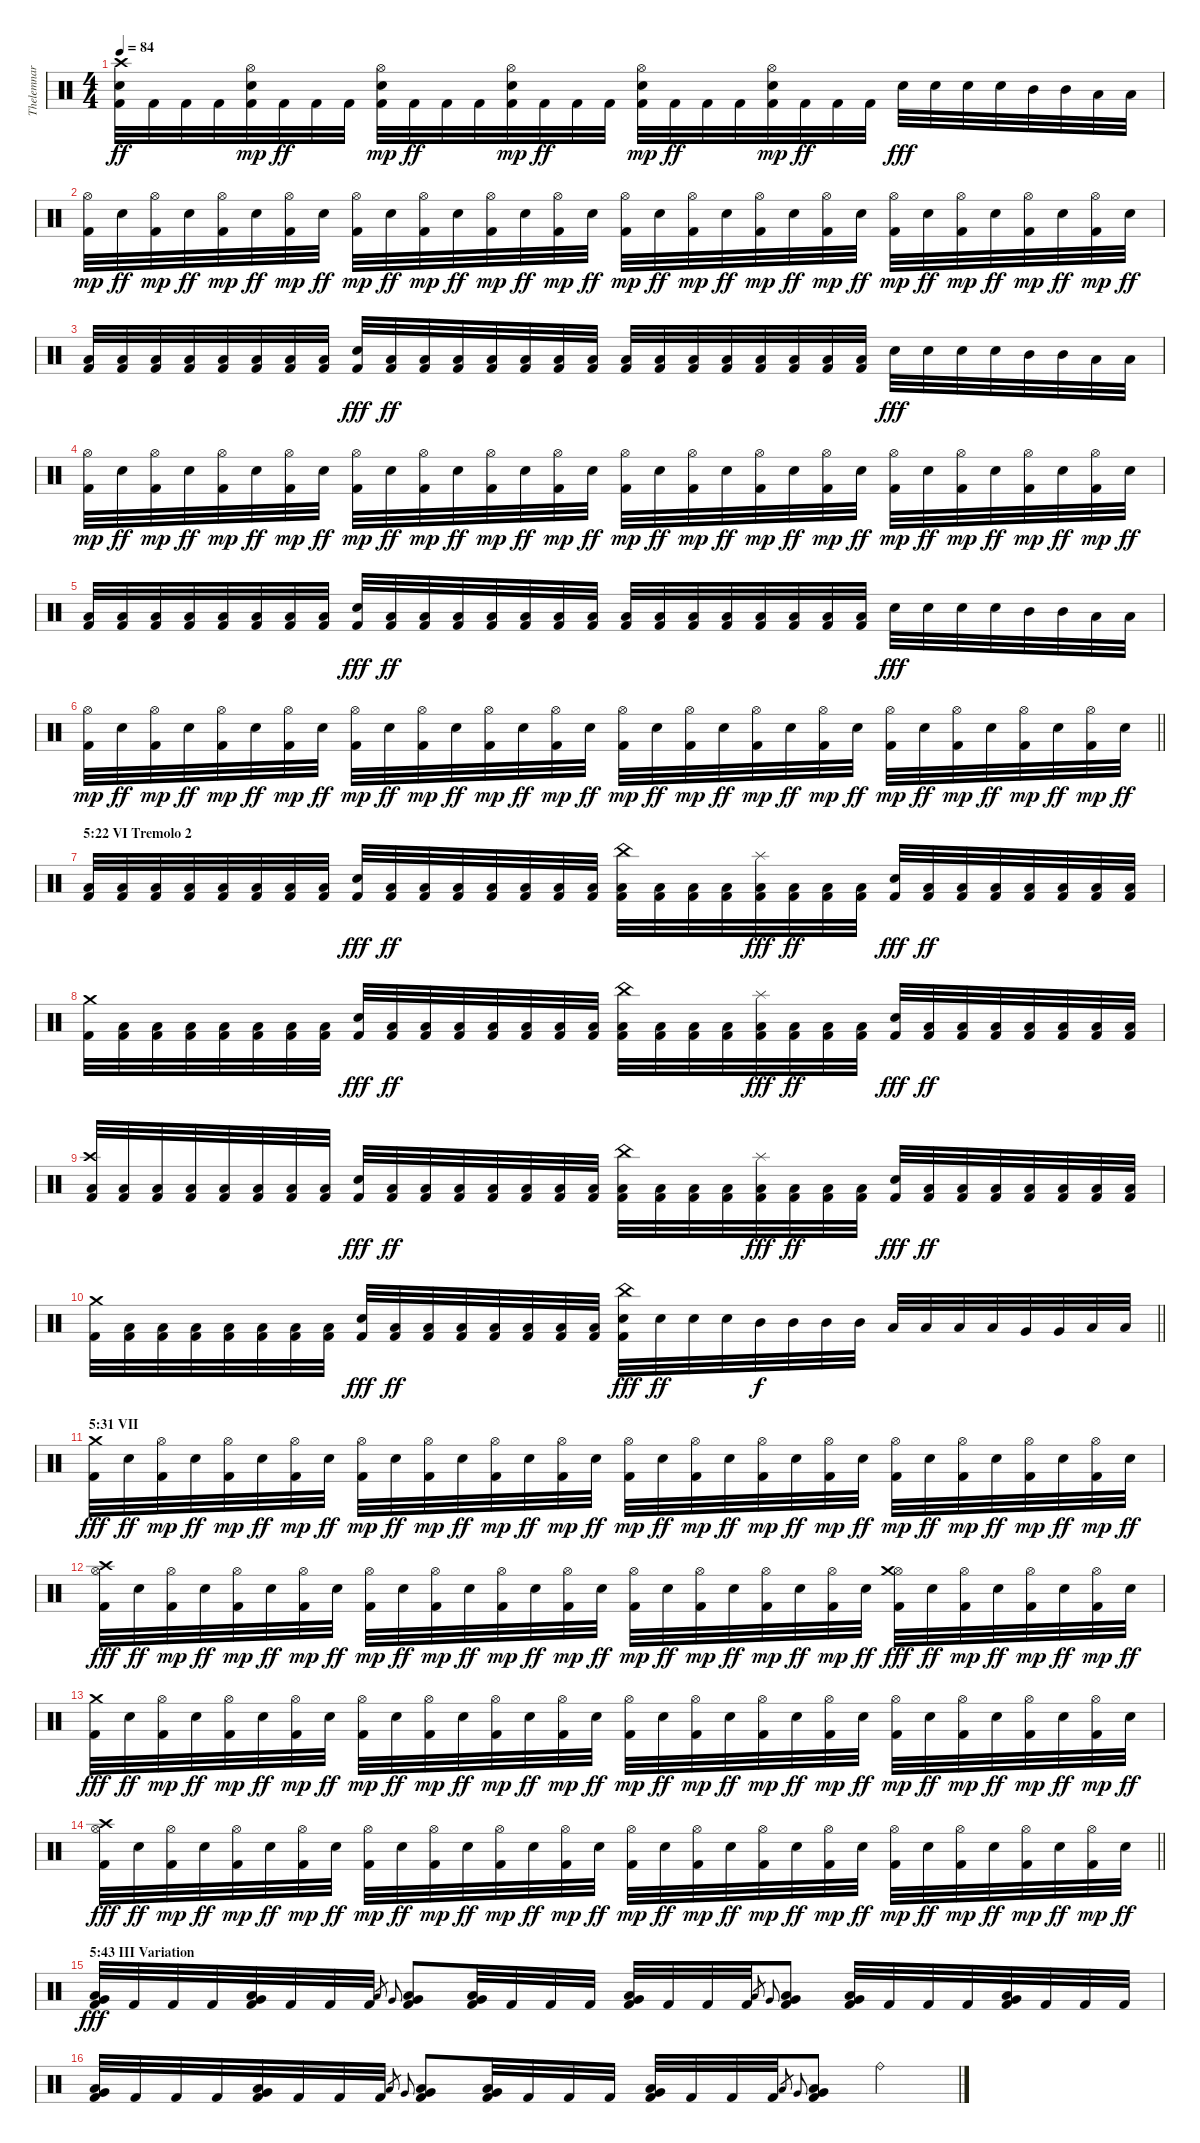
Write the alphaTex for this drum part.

\track ("Thelemnar (Drums)" "Thelemnar ") {instrument percussion}
\staff {score}
\articulation defaults
\ts (4 4)
\tempo 84
\clef neutral
\ks c
("Kick (hit) 2" "Electric Snare (hit)" "Crash high (hit)").32{dy ff} "Kick (hit) 2".32 "Kick (hit) 2".32 "Kick (hit) 2".32 ("Kick (hit) 2" "Electric Snare (hit)" "Hi-Hat (open)").32{dy mp} "Kick (hit) 2".32{dy ff} "Kick (hit) 2".32 "Kick (hit) 2".32 ("Kick (hit) 2" "Electric Snare (hit)" "Hi-Hat (open)").32{dy mp} "Kick (hit) 2".32{dy ff} "Kick (hit) 2".32 "Kick (hit) 2".32 ("Kick (hit) 2" "Electric Snare (hit)" "Hi-Hat (open)").32{dy mp} "Kick (hit) 2".32{dy ff} "Kick (hit) 2".32 "Kick (hit) 2".32 ("Kick (hit) 2" "Electric Snare (hit)" "Hi-Hat (open)").32{dy mp} "Kick (hit) 2".32{dy ff} "Kick (hit) 2".32 "Kick (hit) 2".32 ("Kick (hit) 2" "Electric Snare (hit)" "Hi-Hat (open)").32{dy mp} "Kick (hit) 2".32{dy ff} "Kick (hit) 2".32 "Kick (hit) 2".32 "Electric Snare (hit)".32{dy fff} "Electric Snare (hit)".32 "Electric Snare (hit)".32 "Electric Snare (hit)".32 "Mid Tom (hit)".32 "Mid Tom (hit)".32 "Low Tom (hit)".32 "Low Tom (hit)".32 |
("Kick (hit) 2" "Hi-Hat (open)").32{dy mp} "Electric Snare (hit)".32{dy ff} ("Kick (hit) 2" "Hi-Hat (open)").32{dy mp} "Electric Snare (hit)".32{dy ff} ("Kick (hit) 2" "Hi-Hat (open)").32{dy mp} "Electric Snare (hit)".32{dy ff} ("Kick (hit) 2" "Hi-Hat (open)").32{dy mp} "Electric Snare (hit)".32{dy ff} ("Kick (hit) 2" "Hi-Hat (open)").32{dy mp} "Electric Snare (hit)".32{dy ff} ("Kick (hit) 2" "Hi-Hat (open)").32{dy mp} "Electric Snare (hit)".32{dy ff} ("Kick (hit) 2" "Hi-Hat (open)").32{dy mp} "Electric Snare (hit)".32{dy ff} ("Kick (hit) 2" "Hi-Hat (open)").32{dy mp} "Electric Snare (hit)".32{dy ff} ("Kick (hit) 2" "Hi-Hat (open)").32{dy mp} "Electric Snare (hit)".32{dy ff} ("Kick (hit) 2" "Hi-Hat (open)").32{dy mp} "Electric Snare (hit)".32{dy ff} ("Kick (hit) 2" "Hi-Hat (open)").32{dy mp} "Electric Snare (hit)".32{dy ff} ("Kick (hit) 2" "Hi-Hat (open)").32{dy mp} "Electric Snare (hit)".32{dy ff} ("Kick (hit) 2" "Hi-Hat (open)").32{dy mp} "Electric Snare (hit)".32{dy ff} ("Kick (hit) 2" "Hi-Hat (open)").32{dy mp} "Electric Snare (hit)".32{dy ff} ("Kick (hit) 2" "Hi-Hat (open)").32{dy mp} "Electric Snare (hit)".32{dy ff} ("Kick (hit) 2" "Hi-Hat (open)").32{dy mp} "Electric Snare (hit)".32{dy ff} |
("Kick (hit) 2" "Low Floor Tom (hit)").32 ("Kick (hit) 2" "Low Floor Tom (hit)").32 ("Kick (hit) 2" "Low Floor Tom (hit)").32 ("Kick (hit) 2" "Low Floor Tom (hit)").32 ("Kick (hit) 2" "Low Floor Tom (hit)").32 ("Kick (hit) 2" "Low Floor Tom (hit)").32 ("Kick (hit) 2" "Low Floor Tom (hit)").32 ("Kick (hit) 2" "Low Floor Tom (hit)").32 ("Kick (hit) 2" "Electric Snare (hit)").32{dy fff} ("Kick (hit) 2" "Low Floor Tom (hit)").32{dy ff} ("Kick (hit) 2" "Low Floor Tom (hit)").32 ("Kick (hit) 2" "Low Floor Tom (hit)").32 ("Kick (hit) 2" "Low Floor Tom (hit)").32 ("Kick (hit) 2" "Low Floor Tom (hit)").32 ("Kick (hit) 2" "Low Floor Tom (hit)").32 ("Kick (hit) 2" "Low Floor Tom (hit)").32 ("Kick (hit) 2" "Low Floor Tom (hit)").32 ("Kick (hit) 2" "Low Floor Tom (hit)").32 ("Kick (hit) 2" "Low Floor Tom (hit)").32 ("Kick (hit) 2" "Low Floor Tom (hit)").32 ("Kick (hit) 2" "Low Floor Tom (hit)").32 ("Kick (hit) 2" "Low Floor Tom (hit)").32 ("Kick (hit) 2" "Low Floor Tom (hit)").32 ("Kick (hit) 2" "Low Floor Tom (hit)").32 "Electric Snare (hit)".32{dy fff} "Electric Snare (hit)".32 "Electric Snare (hit)".32 "Electric Snare (hit)".32 "Mid Tom (hit)".32 "Mid Tom (hit)".32 "Low Tom (hit)".32 "Low Tom (hit)".32 |
("Kick (hit) 2" "Hi-Hat (open)").32{dy mp} "Electric Snare (hit)".32{dy ff} ("Kick (hit) 2" "Hi-Hat (open)").32{dy mp} "Electric Snare (hit)".32{dy ff} ("Kick (hit) 2" "Hi-Hat (open)").32{dy mp} "Electric Snare (hit)".32{dy ff} ("Kick (hit) 2" "Hi-Hat (open)").32{dy mp} "Electric Snare (hit)".32{dy ff} ("Kick (hit) 2" "Hi-Hat (open)").32{dy mp} "Electric Snare (hit)".32{dy ff} ("Kick (hit) 2" "Hi-Hat (open)").32{dy mp} "Electric Snare (hit)".32{dy ff} ("Kick (hit) 2" "Hi-Hat (open)").32{dy mp} "Electric Snare (hit)".32{dy ff} ("Kick (hit) 2" "Hi-Hat (open)").32{dy mp} "Electric Snare (hit)".32{dy ff} ("Kick (hit) 2" "Hi-Hat (open)").32{dy mp} "Electric Snare (hit)".32{dy ff} ("Kick (hit) 2" "Hi-Hat (open)").32{dy mp} "Electric Snare (hit)".32{dy ff} ("Kick (hit) 2" "Hi-Hat (open)").32{dy mp} "Electric Snare (hit)".32{dy ff} ("Kick (hit) 2" "Hi-Hat (open)").32{dy mp} "Electric Snare (hit)".32{dy ff} ("Kick (hit) 2" "Hi-Hat (open)").32{dy mp} "Electric Snare (hit)".32{dy ff} ("Kick (hit) 2" "Hi-Hat (open)").32{dy mp} "Electric Snare (hit)".32{dy ff} ("Kick (hit) 2" "Hi-Hat (open)").32{dy mp} "Electric Snare (hit)".32{dy ff} ("Kick (hit) 2" "Hi-Hat (open)").32{dy mp} "Electric Snare (hit)".32{dy ff} |
("Kick (hit) 2" "Low Floor Tom (hit)").32 ("Kick (hit) 2" "Low Floor Tom (hit)").32 ("Kick (hit) 2" "Low Floor Tom (hit)").32 ("Kick (hit) 2" "Low Floor Tom (hit)").32 ("Kick (hit) 2" "Low Floor Tom (hit)").32 ("Kick (hit) 2" "Low Floor Tom (hit)").32 ("Kick (hit) 2" "Low Floor Tom (hit)").32 ("Kick (hit) 2" "Low Floor Tom (hit)").32 ("Kick (hit) 2" "Electric Snare (hit)").32{dy fff} ("Kick (hit) 2" "Low Floor Tom (hit)").32{dy ff} ("Kick (hit) 2" "Low Floor Tom (hit)").32 ("Kick (hit) 2" "Low Floor Tom (hit)").32 ("Kick (hit) 2" "Low Floor Tom (hit)").32 ("Kick (hit) 2" "Low Floor Tom (hit)").32 ("Kick (hit) 2" "Low Floor Tom (hit)").32 ("Kick (hit) 2" "Low Floor Tom (hit)").32 ("Kick (hit) 2" "Low Floor Tom (hit)").32 ("Kick (hit) 2" "Low Floor Tom (hit)").32 ("Kick (hit) 2" "Low Floor Tom (hit)").32 ("Kick (hit) 2" "Low Floor Tom (hit)").32 ("Kick (hit) 2" "Low Floor Tom (hit)").32 ("Kick (hit) 2" "Low Floor Tom (hit)").32 ("Kick (hit) 2" "Low Floor Tom (hit)").32 ("Kick (hit) 2" "Low Floor Tom (hit)").32 "Electric Snare (hit)".32{dy fff} "Electric Snare (hit)".32 "Electric Snare (hit)".32 "Electric Snare (hit)".32 "Mid Tom (hit)".32 "Mid Tom (hit)".32 "Low Tom (hit)".32 "Low Tom (hit)".32 |
\barLineRight lightlight
("Kick (hit) 2" "Hi-Hat (open)").32{dy mp} "Electric Snare (hit)".32{dy ff} ("Kick (hit) 2" "Hi-Hat (open)").32{dy mp} "Electric Snare (hit)".32{dy ff} ("Kick (hit) 2" "Hi-Hat (open)").32{dy mp} "Electric Snare (hit)".32{dy ff} ("Kick (hit) 2" "Hi-Hat (open)").32{dy mp} "Electric Snare (hit)".32{dy ff} ("Kick (hit) 2" "Hi-Hat (open)").32{dy mp} "Electric Snare (hit)".32{dy ff} ("Kick (hit) 2" "Hi-Hat (open)").32{dy mp} "Electric Snare (hit)".32{dy ff} ("Kick (hit) 2" "Hi-Hat (open)").32{dy mp} "Electric Snare (hit)".32{dy ff} ("Kick (hit) 2" "Hi-Hat (open)").32{dy mp} "Electric Snare (hit)".32{dy ff} ("Kick (hit) 2" "Hi-Hat (open)").32{dy mp} "Electric Snare (hit)".32{dy ff} ("Kick (hit) 2" "Hi-Hat (open)").32{dy mp} "Electric Snare (hit)".32{dy ff} ("Kick (hit) 2" "Hi-Hat (open)").32{dy mp} "Electric Snare (hit)".32{dy ff} ("Kick (hit) 2" "Hi-Hat (open)").32{dy mp} "Electric Snare (hit)".32{dy ff} ("Kick (hit) 2" "Hi-Hat (open)").32{dy mp} "Electric Snare (hit)".32{dy ff} ("Kick (hit) 2" "Hi-Hat (open)").32{dy mp} "Electric Snare (hit)".32{dy ff} ("Kick (hit) 2" "Hi-Hat (open)").32{dy mp} "Electric Snare (hit)".32{dy ff} ("Kick (hit) 2" "Hi-Hat (open)").32{dy mp} "Electric Snare (hit)".32{dy ff} |
\section ("" "5:22 VI Tremolo 2")
("Kick (hit) 2" "Low Floor Tom (hit)").32 ("Kick (hit) 2" "Low Floor Tom (hit)").32 ("Kick (hit) 2" "Low Floor Tom (hit)").32 ("Kick (hit) 2" "Low Floor Tom (hit)").32 ("Kick (hit) 2" "Low Floor Tom (hit)").32 ("Kick (hit) 2" "Low Floor Tom (hit)").32 ("Kick (hit) 2" "Low Floor Tom (hit)").32 ("Kick (hit) 2" "Low Floor Tom (hit)").32 ("Kick (hit) 2" "Electric Snare (hit)").32{dy fff} ("Kick (hit) 2" "Low Floor Tom (hit)").32{dy ff} ("Kick (hit) 2" "Low Floor Tom (hit)").32 ("Kick (hit) 2" "Low Floor Tom (hit)").32 ("Kick (hit) 2" "Low Floor Tom (hit)").32 ("Kick (hit) 2" "Low Floor Tom (hit)").32 ("Kick (hit) 2" "Low Floor Tom (hit)").32 ("Kick (hit) 2" "Low Floor Tom (hit)").32 ("Kick (hit) 2" "Low Floor Tom (hit)" "China (hit)").32 ("Kick (hit) 2" "Low Floor Tom (hit)").32 ("Kick (hit) 2" "Low Floor Tom (hit)").32 ("Kick (hit) 2" "Low Floor Tom (hit)").32 ("Kick (hit) 2" "Low Floor Tom (hit)" "Splash (hit)").32{dy fff} ("Kick (hit) 2" "Low Floor Tom (hit)").32{dy ff} ("Kick (hit) 2" "Low Floor Tom (hit)").32 ("Kick (hit) 2" "Low Floor Tom (hit)").32 ("Kick (hit) 2" "Electric Snare (hit)").32{dy fff} ("Kick (hit) 2" "Low Floor Tom (hit)").32{dy ff} ("Kick (hit) 2" "Low Floor Tom (hit)").32 ("Kick (hit) 2" "Low Floor Tom (hit)").32 ("Kick (hit) 2" "Low Floor Tom (hit)").32 ("Kick (hit) 2" "Low Floor Tom (hit)").32 ("Kick (hit) 2" "Low Floor Tom (hit)").32 ("Kick (hit) 2" "Low Floor Tom (hit)").32 |
("Kick (hit) 2" "Crash medium (hit)").32 ("Kick (hit) 2" "Low Floor Tom (hit)").32 ("Kick (hit) 2" "Low Floor Tom (hit)").32 ("Kick (hit) 2" "Low Floor Tom (hit)").32 ("Kick (hit) 2" "Low Floor Tom (hit)").32 ("Kick (hit) 2" "Low Floor Tom (hit)").32 ("Kick (hit) 2" "Low Floor Tom (hit)").32 ("Kick (hit) 2" "Low Floor Tom (hit)").32 ("Kick (hit) 2" "Electric Snare (hit)").32{dy fff} ("Kick (hit) 2" "Low Floor Tom (hit)").32{dy ff} ("Kick (hit) 2" "Low Floor Tom (hit)").32 ("Kick (hit) 2" "Low Floor Tom (hit)").32 ("Kick (hit) 2" "Low Floor Tom (hit)").32 ("Kick (hit) 2" "Low Floor Tom (hit)").32 ("Kick (hit) 2" "Low Floor Tom (hit)").32 ("Kick (hit) 2" "Low Floor Tom (hit)").32 ("Kick (hit) 2" "Low Floor Tom (hit)" "China (hit)").32 ("Kick (hit) 2" "Low Floor Tom (hit)").32 ("Kick (hit) 2" "Low Floor Tom (hit)").32 ("Kick (hit) 2" "Low Floor Tom (hit)").32 ("Kick (hit) 2" "Low Floor Tom (hit)" "Splash (hit)").32{dy fff} ("Kick (hit) 2" "Low Floor Tom (hit)").32{dy ff} ("Kick (hit) 2" "Low Floor Tom (hit)").32 ("Kick (hit) 2" "Low Floor Tom (hit)").32 ("Kick (hit) 2" "Electric Snare (hit)").32{dy fff} ("Kick (hit) 2" "Low Floor Tom (hit)").32{dy ff} ("Kick (hit) 2" "Low Floor Tom (hit)").32 ("Kick (hit) 2" "Low Floor Tom (hit)").32 ("Kick (hit) 2" "Low Floor Tom (hit)").32 ("Kick (hit) 2" "Low Floor Tom (hit)").32 ("Kick (hit) 2" "Low Floor Tom (hit)").32 ("Kick (hit) 2" "Low Floor Tom (hit)").32 |
("Kick (hit) 2" "Low Floor Tom (hit)" "Crash high (hit)").32 ("Kick (hit) 2" "Low Floor Tom (hit)").32 ("Kick (hit) 2" "Low Floor Tom (hit)").32 ("Kick (hit) 2" "Low Floor Tom (hit)").32 ("Kick (hit) 2" "Low Floor Tom (hit)").32 ("Kick (hit) 2" "Low Floor Tom (hit)").32 ("Kick (hit) 2" "Low Floor Tom (hit)").32 ("Kick (hit) 2" "Low Floor Tom (hit)").32 ("Kick (hit) 2" "Electric Snare (hit)").32{dy fff} ("Kick (hit) 2" "Low Floor Tom (hit)").32{dy ff} ("Kick (hit) 2" "Low Floor Tom (hit)").32 ("Kick (hit) 2" "Low Floor Tom (hit)").32 ("Kick (hit) 2" "Low Floor Tom (hit)").32 ("Kick (hit) 2" "Low Floor Tom (hit)").32 ("Kick (hit) 2" "Low Floor Tom (hit)").32 ("Kick (hit) 2" "Low Floor Tom (hit)").32 ("Kick (hit) 2" "Low Floor Tom (hit)" "China (hit)").32 ("Kick (hit) 2" "Low Floor Tom (hit)").32 ("Kick (hit) 2" "Low Floor Tom (hit)").32 ("Kick (hit) 2" "Low Floor Tom (hit)").32 ("Kick (hit) 2" "Low Floor Tom (hit)" "Splash (hit)").32{dy fff} ("Kick (hit) 2" "Low Floor Tom (hit)").32{dy ff} ("Kick (hit) 2" "Low Floor Tom (hit)").32 ("Kick (hit) 2" "Low Floor Tom (hit)").32 ("Kick (hit) 2" "Electric Snare (hit)").32{dy fff} ("Kick (hit) 2" "Low Floor Tom (hit)").32{dy ff} ("Kick (hit) 2" "Low Floor Tom (hit)").32 ("Kick (hit) 2" "Low Floor Tom (hit)").32 ("Kick (hit) 2" "Low Floor Tom (hit)").32 ("Kick (hit) 2" "Low Floor Tom (hit)").32 ("Kick (hit) 2" "Low Floor Tom (hit)").32 ("Kick (hit) 2" "Low Floor Tom (hit)").32 |
\barLineRight lightlight
("Kick (hit) 2" "Crash medium (hit)").32 ("Kick (hit) 2" "Low Floor Tom (hit)").32 ("Kick (hit) 2" "Low Floor Tom (hit)").32 ("Kick (hit) 2" "Low Floor Tom (hit)").32 ("Kick (hit) 2" "Low Floor Tom (hit)").32 ("Kick (hit) 2" "Low Floor Tom (hit)").32 ("Kick (hit) 2" "Low Floor Tom (hit)").32 ("Kick (hit) 2" "Low Floor Tom (hit)").32 ("Kick (hit) 2" "Electric Snare (hit)").32{dy fff} ("Kick (hit) 2" "Low Floor Tom (hit)").32{dy ff} ("Kick (hit) 2" "Low Floor Tom (hit)").32 ("Kick (hit) 2" "Low Floor Tom (hit)").32 ("Kick (hit) 2" "Low Floor Tom (hit)").32 ("Kick (hit) 2" "Low Floor Tom (hit)").32 ("Kick (hit) 2" "Low Floor Tom (hit)").32 ("Kick (hit) 2" "Low Floor Tom (hit)").32 ("Kick (hit) 2" "Electric Snare (hit)" "China (hit)").32{dy fff} "Electric Snare (hit)".32{dy ff} "Electric Snare (hit)".32 "Electric Snare (hit)".32 "Mid Tom (hit)".32{dy f} "Mid Tom (hit)".32 "Mid Tom (hit)".32 "Mid Tom (hit)".32 "Low Tom (hit)".32 "Low Tom (hit)".32 "Low Tom (hit)".32 "Low Tom (hit)".32 "Very Low Tom (hit)".32 "Very Low Tom (hit)".32 "Low Floor Tom (hit)".32 "Low Floor Tom (hit)".32 |
\section ("" "5:31 VII")
("Kick (hit) 2" "Crash medium (hit)").32{dy fff} "Electric Snare (hit)".32{dy ff} ("Kick (hit) 2" "Hi-Hat (open)").32{dy mp} "Electric Snare (hit)".32{dy ff} ("Kick (hit) 2" "Hi-Hat (open)").32{dy mp} "Electric Snare (hit)".32{dy ff} ("Kick (hit) 2" "Hi-Hat (open)").32{dy mp} "Electric Snare (hit)".32{dy ff} ("Kick (hit) 2" "Hi-Hat (open)").32{dy mp} "Electric Snare (hit)".32{dy ff} ("Kick (hit) 2" "Hi-Hat (open)").32{dy mp} "Electric Snare (hit)".32{dy ff} ("Kick (hit) 2" "Hi-Hat (open)").32{dy mp} "Electric Snare (hit)".32{dy ff} ("Kick (hit) 2" "Hi-Hat (open)").32{dy mp} "Electric Snare (hit)".32{dy ff} ("Kick (hit) 2" "Hi-Hat (open)").32{dy mp} "Electric Snare (hit)".32{dy ff} ("Kick (hit) 2" "Hi-Hat (open)").32{dy mp} "Electric Snare (hit)".32{dy ff} ("Kick (hit) 2" "Hi-Hat (open)").32{dy mp} "Electric Snare (hit)".32{dy ff} ("Kick (hit) 2" "Hi-Hat (open)").32{dy mp} "Electric Snare (hit)".32{dy ff} ("Kick (hit) 2" "Hi-Hat (open)").32{dy mp} "Electric Snare (hit)".32{dy ff} ("Kick (hit) 2" "Hi-Hat (open)").32{dy mp} "Electric Snare (hit)".32{dy ff} ("Kick (hit) 2" "Hi-Hat (open)").32{dy mp} "Electric Snare (hit)".32{dy ff} ("Kick (hit) 2" "Hi-Hat (open)").32{dy mp} "Electric Snare (hit)".32{dy ff} |
("Kick (hit) 2" "Hi-Hat (open)" "Crash high (hit)").32{dy fff} "Electric Snare (hit)".32{dy ff} ("Kick (hit) 2" "Hi-Hat (open)").32{dy mp} "Electric Snare (hit)".32{dy ff} ("Kick (hit) 2" "Hi-Hat (open)").32{dy mp} "Electric Snare (hit)".32{dy ff} ("Kick (hit) 2" "Hi-Hat (open)").32{dy mp} "Electric Snare (hit)".32{dy ff} ("Kick (hit) 2" "Hi-Hat (open)").32{dy mp} "Electric Snare (hit)".32{dy ff} ("Kick (hit) 2" "Hi-Hat (open)").32{dy mp} "Electric Snare (hit)".32{dy ff} ("Kick (hit) 2" "Hi-Hat (open)").32{dy mp} "Electric Snare (hit)".32{dy ff} ("Kick (hit) 2" "Hi-Hat (open)").32{dy mp} "Electric Snare (hit)".32{dy ff} ("Kick (hit) 2" "Hi-Hat (open)").32{dy mp} "Electric Snare (hit)".32{dy ff} ("Kick (hit) 2" "Hi-Hat (open)").32{dy mp} "Electric Snare (hit)".32{dy ff} ("Kick (hit) 2" "Hi-Hat (open)").32{dy mp} "Electric Snare (hit)".32{dy ff} ("Kick (hit) 2" "Hi-Hat (open)").32{dy mp} "Electric Snare (hit)".32{dy ff} ("Kick (hit) 2" "Hi-Hat (open)" "Crash medium (hit)").32{dy fff} "Electric Snare (hit)".32{dy ff} ("Kick (hit) 2" "Hi-Hat (open)").32{dy mp} "Electric Snare (hit)".32{dy ff} ("Kick (hit) 2" "Hi-Hat (open)").32{dy mp} "Electric Snare (hit)".32{dy ff} ("Kick (hit) 2" "Hi-Hat (open)").32{dy mp} "Electric Snare (hit)".32{dy ff} |
("Kick (hit) 2" "Crash medium (hit)").32{dy fff} "Electric Snare (hit)".32{dy ff} ("Kick (hit) 2" "Hi-Hat (open)").32{dy mp} "Electric Snare (hit)".32{dy ff} ("Kick (hit) 2" "Hi-Hat (open)").32{dy mp} "Electric Snare (hit)".32{dy ff} ("Kick (hit) 2" "Hi-Hat (open)").32{dy mp} "Electric Snare (hit)".32{dy ff} ("Kick (hit) 2" "Hi-Hat (open)").32{dy mp} "Electric Snare (hit)".32{dy ff} ("Kick (hit) 2" "Hi-Hat (open)").32{dy mp} "Electric Snare (hit)".32{dy ff} ("Kick (hit) 2" "Hi-Hat (open)").32{dy mp} "Electric Snare (hit)".32{dy ff} ("Kick (hit) 2" "Hi-Hat (open)").32{dy mp} "Electric Snare (hit)".32{dy ff} ("Kick (hit) 2" "Hi-Hat (open)").32{dy mp} "Electric Snare (hit)".32{dy ff} ("Kick (hit) 2" "Hi-Hat (open)").32{dy mp} "Electric Snare (hit)".32{dy ff} ("Kick (hit) 2" "Hi-Hat (open)").32{dy mp} "Electric Snare (hit)".32{dy ff} ("Kick (hit) 2" "Hi-Hat (open)").32{dy mp} "Electric Snare (hit)".32{dy ff} ("Kick (hit) 2" "Hi-Hat (open)").32{dy mp} "Electric Snare (hit)".32{dy ff} ("Kick (hit) 2" "Hi-Hat (open)").32{dy mp} "Electric Snare (hit)".32{dy ff} ("Kick (hit) 2" "Hi-Hat (open)").32{dy mp} "Electric Snare (hit)".32{dy ff} ("Kick (hit) 2" "Hi-Hat (open)").32{dy mp} "Electric Snare (hit)".32{dy ff} |
\barLineRight lightlight
("Kick (hit) 2" "Hi-Hat (open)" "Crash high (hit)").32{dy fff} "Electric Snare (hit)".32{dy ff} ("Kick (hit) 2" "Hi-Hat (open)").32{dy mp} "Electric Snare (hit)".32{dy ff} ("Kick (hit) 2" "Hi-Hat (open)").32{dy mp} "Electric Snare (hit)".32{dy ff} ("Kick (hit) 2" "Hi-Hat (open)").32{dy mp} "Electric Snare (hit)".32{dy ff} ("Kick (hit) 2" "Hi-Hat (open)").32{dy mp} "Electric Snare (hit)".32{dy ff} ("Kick (hit) 2" "Hi-Hat (open)").32{dy mp} "Electric Snare (hit)".32{dy ff} ("Kick (hit) 2" "Hi-Hat (open)").32{dy mp} "Electric Snare (hit)".32{dy ff} ("Kick (hit) 2" "Hi-Hat (open)").32{dy mp} "Electric Snare (hit)".32{dy ff} ("Kick (hit) 2" "Hi-Hat (open)").32{dy mp} "Electric Snare (hit)".32{dy ff} ("Kick (hit) 2" "Hi-Hat (open)").32{dy mp} "Electric Snare (hit)".32{dy ff} ("Kick (hit) 2" "Hi-Hat (open)").32{dy mp} "Electric Snare (hit)".32{dy ff} ("Kick (hit) 2" "Hi-Hat (open)").32{dy mp} "Electric Snare (hit)".32{dy ff} ("Kick (hit) 2" "Hi-Hat (open)").32{dy mp} "Electric Snare (hit)".32{dy ff} ("Kick (hit) 2" "Hi-Hat (open)").32{dy mp} "Electric Snare (hit)".32{dy ff} ("Kick (hit) 2" "Hi-Hat (open)").32{dy mp} "Electric Snare (hit)".32{dy ff} ("Kick (hit) 2" "Hi-Hat (open)").32{dy mp} "Electric Snare (hit)".32{dy ff} |
\section ("" "5:43 III Variation")
("Kick (hit) 2" "Low Floor Tom (hit)" "Very Low Tom (hit)").32{dy fff} "Kick (hit) 2".32 "Kick (hit) 2".32 "Kick (hit) 2".32 ("Kick (hit) 2" "Low Floor Tom (hit)" "Very Low Tom (hit)").32 "Kick (hit) 2".32 "Kick (hit) 2".32 "Kick (hit) 2".32 "Low Tom (hit)".16{gr} "Very Low Tom (hit)".16{gr onbeat} ("Kick (hit) 2" "Low Tom (hit)" "Very Low Tom (hit)").8 ("Kick (hit) 2" "Low Floor Tom (hit)" "Very Low Tom (hit)").32 "Kick (hit) 2".32 "Kick (hit) 2".32 "Kick (hit) 2".32 ("Kick (hit) 2" "Low Floor Tom (hit)" "Very Low Tom (hit)").32 "Kick (hit) 2".32 "Kick (hit) 2".32 "Kick (hit) 2".32 "Low Tom (hit)".16{gr} "Very Low Tom (hit)".16{gr onbeat} ("Kick (hit) 2" "Low Tom (hit)" "Very Low Tom (hit)").8 ("Kick (hit) 2" "Low Floor Tom (hit)" "Very Low Tom (hit)").32 "Kick (hit) 2".32 "Kick (hit) 2".32 "Kick (hit) 2".32 ("Kick (hit) 2" "Low Tom (hit)" "Very Low Tom (hit)").32 "Kick (hit) 2".32 "Kick (hit) 2".32 "Kick (hit) 2".32 |
("Kick (hit) 2" "Low Floor Tom (hit)" "Very Low Tom (hit)").32 "Kick (hit) 2".32 "Kick (hit) 2".32 "Kick (hit) 2".32 ("Kick (hit) 2" "Low Floor Tom (hit)" "Very Low Tom (hit)").32 "Kick (hit) 2".32 "Kick (hit) 2".32 "Kick (hit) 2".32 "Low Tom (hit)".16{gr} "Very Low Tom (hit)".16{gr onbeat} ("Kick (hit) 2" "Low Tom (hit)" "Very Low Tom (hit)").8 ("Kick (hit) 2" "Low Floor Tom (hit)" "Very Low Tom (hit)").32 "Kick (hit) 2".32 "Kick (hit) 2".32 "Kick (hit) 2".32 ("Kick (hit) 2" "Low Floor Tom (hit)" "Very Low Tom (hit)").32 "Kick (hit) 2".32 "Kick (hit) 2".32 "Kick (hit) 2".32 "Low Tom (hit)".16{gr} "Very Low Tom (hit)".16{gr onbeat} ("Kick (hit) 2" "Low Tom (hit)" "Very Low Tom (hit)").8 "Ride (bell)".4
